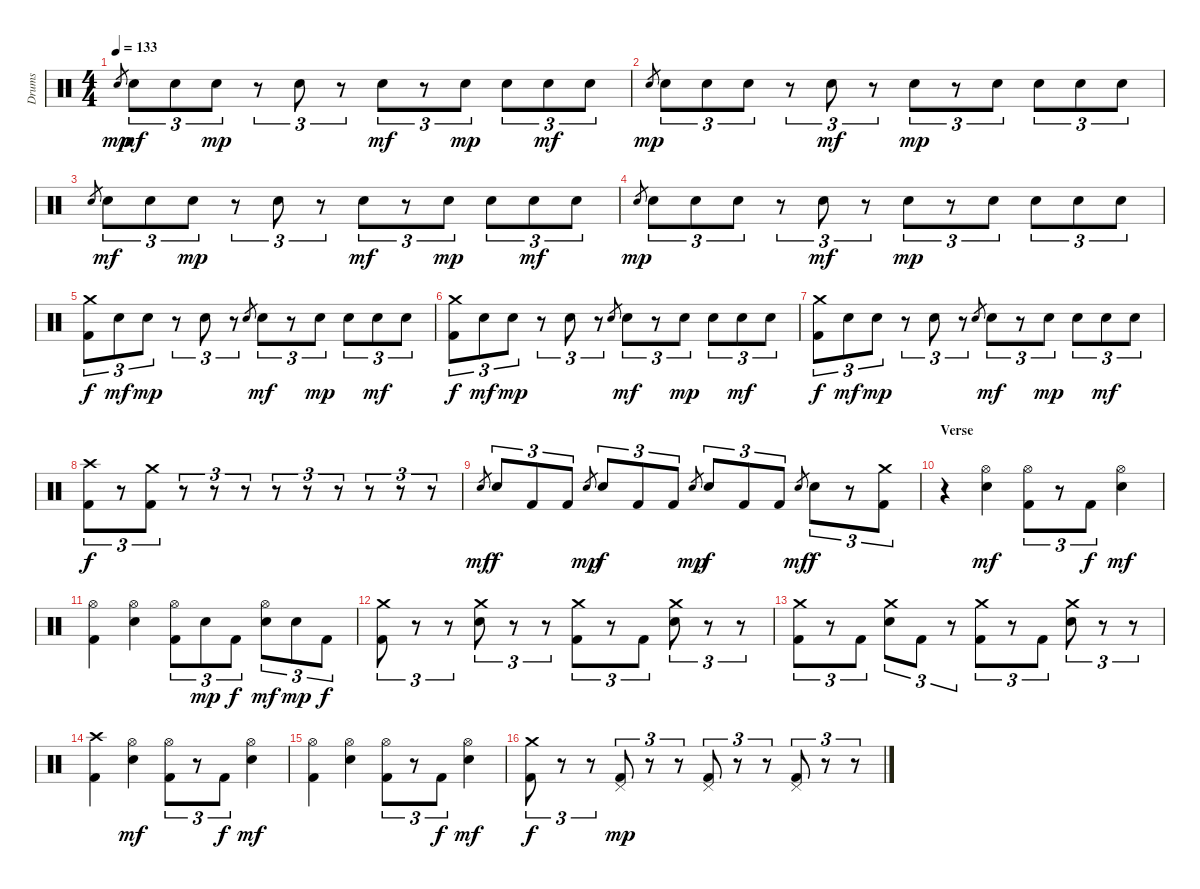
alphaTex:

\track ("Drums" "Drums") {instrument percussion}
\staff {score}
\articulation defaults
\ts (4 4)
\tempo 133
\clef neutral
\ks c "Electric Snare (hit)".8{gr dy mp} "Electric Snare (hit)".8{tu (3 2) dy mf} "Electric Snare (hit)".8{tu (3 2)} "Electric Snare (hit)".8{tu (3 2) dy mp}
r.8{tu (3 2)} "Electric Snare (hit)".8{tu (3 2)} r.8{tu (3 2)} "Electric Snare (hit)".8{tu (3 2) dy mf} r.8{tu (3 2)} "Electric Snare (hit)".8{tu (3 2) dy mp} "Electric Snare (hit)".8{tu (3 2)} "Electric Snare (hit)".8{tu (3 2) dy mf} "Electric Snare (hit)".8{tu (3 2)} |
"Electric Snare (hit)".8{gr dy mp} "Electric Snare (hit)".8{tu (3 2)} "Electric Snare (hit)".8{tu (3 2)} "Electric Snare (hit)".8{tu (3 2)} r.8{tu (3 2)} "Electric Snare (hit)".8{tu (3 2) dy mf} r.8{tu (3 2)} "Electric Snare (hit)".8{tu (3 2) dy mp} r.8{tu (3 2)} "Electric Snare (hit)".8{tu (3 2)} "Electric Snare (hit)".8{tu (3 2)} "Electric Snare (hit)".8{tu (3 2)} "Electric Snare (hit)".8{tu (3 2)} |
"Electric Snare (hit)".8{gr} "Electric Snare (hit)".8{tu (3 2) dy mf} "Electric Snare (hit)".8{tu (3 2)} "Electric Snare (hit)".8{tu (3 2) dy mp} r.8{tu (3 2)} "Electric Snare (hit)".8{tu (3 2)} r.8{tu (3 2)} "Electric Snare (hit)".8{tu (3 2) dy mf} r.8{tu (3 2)} "Electric Snare (hit)".8{tu (3 2) dy mp} "Electric Snare (hit)".8{tu (3 2)} "Electric Snare (hit)".8{tu (3 2) dy mf} "Electric Snare (hit)".8{tu (3 2)} |
"Electric Snare (hit)".8{gr dy mp} "Electric Snare (hit)".8{tu (3 2)} "Electric Snare (hit)".8{tu (3 2)} "Electric Snare (hit)".8{tu (3 2)} r.8{tu (3 2)} "Electric Snare (hit)".8{tu (3 2) dy mf} r.8{tu (3 2)} "Electric Snare (hit)".8{tu (3 2) dy mp} r.8{tu (3 2)} "Electric Snare (hit)".8{tu (3 2)} "Electric Snare (hit)".8{tu (3 2)} "Electric Snare (hit)".8{tu (3 2)} "Electric Snare (hit)".8{tu (3 2)} |
("Crash medium (hit)" "Kick (hit) 2").8{tu (3 2) dy f} "Electric Snare (hit)".8{tu (3 2) dy mf} "Electric Snare (hit)".8{tu (3 2) dy mp} r.8{tu (3 2)} "Electric Snare (hit)".8{tu (3 2)} r.8{tu (3 2)} "Electric Snare (hit)".8{gr} "Electric Snare (hit)".8{tu (3 2) dy mf} r.8{tu (3 2)} "Electric Snare (hit)".8{tu (3 2) dy mp} "Electric Snare (hit)".8{tu (3 2)} "Electric Snare (hit)".8{tu (3 2) dy mf} "Electric Snare (hit)".8{tu (3 2)} |
("Crash medium (hit)" "Kick (hit) 2").8{tu (3 2) dy f} "Electric Snare (hit)".8{tu (3 2) dy mf} "Electric Snare (hit)".8{tu (3 2) dy mp} r.8{tu (3 2)} "Electric Snare (hit)".8{tu (3 2)} r.8{tu (3 2)} "Electric Snare (hit)".8{gr} "Electric Snare (hit)".8{tu (3 2) dy mf} r.8{tu (3 2)} "Electric Snare (hit)".8{tu (3 2) dy mp} "Electric Snare (hit)".8{tu (3 2)} "Electric Snare (hit)".8{tu (3 2) dy mf} "Electric Snare (hit)".8{tu (3 2)} |
("Crash medium (hit)" "Kick (hit) 2").8{tu (3 2) dy f} "Electric Snare (hit)".8{tu (3 2) dy mf} "Electric Snare (hit)".8{tu (3 2) dy mp} r.8{tu (3 2)} "Electric Snare (hit)".8{tu (3 2)} r.8{tu (3 2)} "Electric Snare (hit)".8{gr} "Electric Snare (hit)".8{tu (3 2) dy mf} r.8{tu (3 2)} "Electric Snare (hit)".8{tu (3 2) dy mp} "Electric Snare (hit)".8{tu (3 2)} "Electric Snare (hit)".8{tu (3 2) dy mf} "Electric Snare (hit)".8{tu (3 2)} |
("Crash high (hit)" "Kick (hit) 2").8{tu (3 2) dy f} r.8{tu (3 2)} ("Crash medium (hit)" "Kick (hit) 2").8{tu (3 2)} r.8{tu (3 2)} r.8{tu (3 2)} r.8{tu (3 2)} r.8{tu (3 2)} r.8{tu (3 2)} r.8{tu (3 2)} r.8{tu (3 2)} r.8{tu (3 2)} r.8{tu (3 2)} |
"Electric Snare (hit)".8{gr dy mf} "Electric Snare (hit)".8{tu (3 2) dy f} "Kick (hit) 2".8{tu (3 2)} "Kick (hit) 2".8{tu (3 2)} "Electric Snare (hit)".8{gr dy mp} "Electric Snare (hit)".8{tu (3 2) dy f} "Kick (hit) 2".8{tu (3 2)} "Kick (hit) 2".8{tu (3 2)} "Electric Snare (hit)".8{gr dy mp} "Electric Snare (hit)".8{tu (3 2) dy f} "Kick (hit) 2".8{tu (3 2)} "Kick (hit) 2".8{tu (3 2)} "Electric Snare (hit)".8{gr dy mf} "Electric Snare (hit)".8{tu (3 2) dy f} r.8{tu (3 2)} ("Crash medium (hit)" "Kick (hit) 2").8{tu (3 2)} |
\section ("" "Verse")
r.4 ("Hi-Hat (open)" "Electric Snare (hit)").4{dy mf} ("Hi-Hat (open)" "Kick (hit) 2").8{tu (3 2)} r.8{tu (3 2)} "Kick (hit) 2".8{tu (3 2) dy f} ("Hi-Hat (open)" "Electric Snare (hit)").4{dy mf} |
("Hi-Hat (open)" "Kick (hit) 2").4 ("Hi-Hat (open)" "Electric Snare (hit)").4 ("Hi-Hat (open)" "Kick (hit) 2").8{tu (3 2)} "Electric Snare (hit)".8{tu (3 2) dy mp} "Kick (hit) 2".8{tu (3 2) dy f} ("Hi-Hat (open)" "Electric Snare (hit)").8{tu (3 2) dy mf} "Electric Snare (hit)".8{tu (3 2) dy mp} "Kick (hit) 2".8{tu (3 2) dy f} |
("Crash medium (hit)" "Kick (hit) 2").8{tu (3 2)} r.8{tu (3 2)} r.8{tu (3 2)} ("Crash medium (hit)" "Electric Snare (hit)").8{tu (3 2)} r.8{tu (3 2)} r.8{tu (3 2)} ("Crash medium (hit)" "Kick (hit) 2").8{tu (3 2)} r.8{tu (3 2)} "Kick (hit) 2".8{tu (3 2)} ("Crash medium (hit)" "Electric Snare (hit)").8{tu (3 2)} r.8{tu (3 2)} r.8{tu (3 2)} |
("Crash medium (hit)" "Kick (hit) 2").8{tu (3 2)} r.8{tu (3 2)} "Kick (hit) 2".8{tu (3 2)} ("Crash medium (hit)" "Electric Snare (hit)").8{tu (3 2)} "Kick (hit) 2".8{tu (3 2)} r.8{tu (3 2)} ("Crash medium (hit)" "Kick (hit) 2").8{tu (3 2)} r.8{tu (3 2)} "Kick (hit) 2".8{tu (3 2)} ("Crash medium (hit)" "Electric Snare (hit)").8{tu (3 2)} r.8{tu (3 2)} r.8{tu (3 2)} |
("Crash high (hit)" "Kick (hit) 2").4 ("Hi-Hat (open)" "Electric Snare (hit)").4{dy mf} ("Hi-Hat (open)" "Kick (hit) 2").8{tu (3 2)} r.8{tu (3 2)} "Kick (hit) 2".8{tu (3 2) dy f} ("Hi-Hat (open)" "Electric Snare (hit)").4{dy mf} |
("Hi-Hat (open)" "Kick (hit) 2").4 ("Hi-Hat (open)" "Electric Snare (hit)").4 ("Hi-Hat (open)" "Kick (hit) 2").8{tu (3 2)} r.8{tu (3 2)} "Kick (hit) 2".8{tu (3 2) dy f} ("Hi-Hat (open)" "Electric Snare (hit)").4{dy mf} |
("Crash medium (hit)" "Kick (hit) 2").8{tu (3 2) dy f} r.8{tu (3 2)} r.8{tu (3 2)} ("Pedal Hi-Hat (hit)" "Kick (hit) 2").8{tu (3 2) dy mp} r.8{tu (3 2)} r.8{tu (3 2)} ("Pedal Hi-Hat (hit)" "Kick (hit) 2").8{tu (3 2)} r.8{tu (3 2)} r.8{tu (3 2)} ("Pedal Hi-Hat (hit)" "Kick (hit) 2").8{tu (3 2)} r.8{tu (3 2)} r.8{tu (3 2)}
